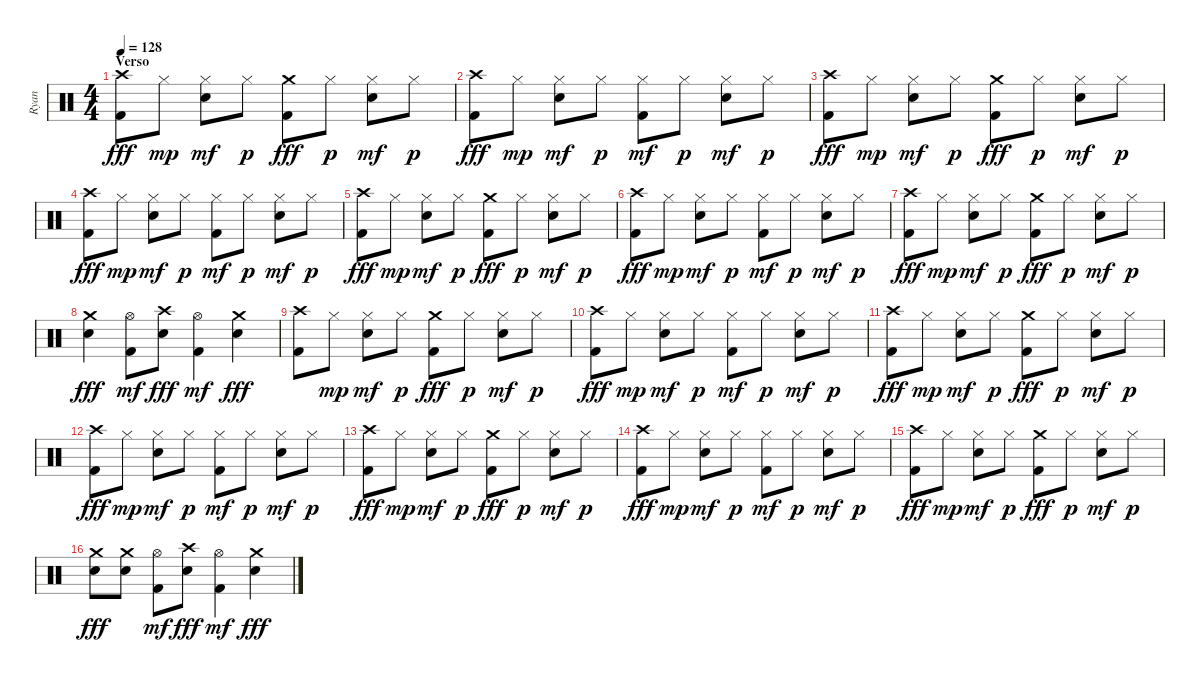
\track ("Ryan" "Ryan") {instrument percussion}
\staff {score}
\articulation defaults
\ts (4 4)
\section ("" "Verso")
\tempo 128
\clef neutral
\ks c
("Kick (hit) 2" "Crash high (hit)").8{dy fff} "Hi-Hat (closed)".8{dy mp} ("Snare (hit) 2" "Hi-Hat (closed)").8{dy mf} "Hi-Hat (closed)".8{dy p} ("Kick (hit) 2" "Crash medium (hit)").8{dy fff} "Hi-Hat (closed)".8{dy p} ("Snare (hit) 2" "Hi-Hat (closed)").8{dy mf} "Hi-Hat (closed)".8{dy p} |
("Kick (hit) 2" "Crash high (hit)").8{dy fff} "Hi-Hat (closed)".8{dy mp} ("Snare (hit) 2" "Hi-Hat (closed)").8{dy mf} "Hi-Hat (closed)".8{dy p} ("Kick (hit) 2" "Hi-Hat (closed)").8{dy mf} "Hi-Hat (closed)".8{dy p} ("Snare (hit) 2" "Hi-Hat (closed)").8{dy mf} "Hi-Hat (closed)".8{dy p} |
("Kick (hit) 2" "Crash high (hit)").8{dy fff} "Hi-Hat (closed)".8{dy mp} ("Snare (hit) 2" "Hi-Hat (closed)").8{dy mf} "Hi-Hat (closed)".8{dy p} ("Kick (hit) 2" "Crash medium (hit)").8{dy fff} "Hi-Hat (closed)".8{dy p} ("Snare (hit) 2" "Hi-Hat (closed)").8{dy mf} "Hi-Hat (closed)".8{dy p} |
("Kick (hit) 2" "Crash high (hit)").8{dy fff} "Hi-Hat (closed)".8{dy mp} ("Snare (hit) 2" "Hi-Hat (closed)").8{dy mf} "Hi-Hat (closed)".8{dy p} ("Kick (hit) 2" "Hi-Hat (closed)").8{dy mf} "Hi-Hat (closed)".8{dy p} ("Snare (hit) 2" "Hi-Hat (closed)").8{dy mf} "Hi-Hat (closed)".8{dy p} |
("Kick (hit) 2" "Crash high (hit)").8{dy fff} "Hi-Hat (closed)".8{dy mp} ("Snare (hit) 2" "Hi-Hat (closed)").8{dy mf} "Hi-Hat (closed)".8{dy p} ("Kick (hit) 2" "Crash medium (hit)").8{dy fff} "Hi-Hat (closed)".8{dy p} ("Snare (hit) 2" "Hi-Hat (closed)").8{dy mf} "Hi-Hat (closed)".8{dy p} |
("Kick (hit) 2" "Crash high (hit)").8{dy fff} "Hi-Hat (closed)".8{dy mp} ("Snare (hit) 2" "Hi-Hat (closed)").8{dy mf} "Hi-Hat (closed)".8{dy p} ("Kick (hit) 2" "Hi-Hat (closed)").8{dy mf} "Hi-Hat (closed)".8{dy p} ("Snare (hit) 2" "Hi-Hat (closed)").8{dy mf} "Hi-Hat (closed)".8{dy p} |
("Kick (hit) 2" "Crash high (hit)").8{dy fff} "Hi-Hat (closed)".8{dy mp} ("Snare (hit) 2" "Hi-Hat (closed)").8{dy mf} "Hi-Hat (closed)".8{dy p} ("Kick (hit) 2" "Crash medium (hit)").8{dy fff} "Hi-Hat (closed)".8{dy p} ("Snare (hit) 2" "Hi-Hat (closed)").8{dy mf} "Hi-Hat (closed)".8{dy p} |
("Crash medium (hit)" "Snare (hit) 2").4{dy fff} ("Kick (hit) 2" "Hi-Hat (open)").8{dy mf} ("Snare (hit) 2" "Crash high (hit)").8{dy fff} ("Kick (hit) 2" "Hi-Hat (open)").4{dy mf} ("Crash medium (hit)" "Snare (hit) 2").4{dy fff} |
("Kick (hit) 2" "Crash high (hit)").8 "Hi-Hat (closed)".8{dy mp} ("Snare (hit) 2" "Hi-Hat (closed)").8{dy mf} "Hi-Hat (closed)".8{dy p} ("Kick (hit) 2" "Crash medium (hit)").8{dy fff} "Hi-Hat (closed)".8{dy p} ("Snare (hit) 2" "Hi-Hat (closed)").8{dy mf} "Hi-Hat (closed)".8{dy p} |
("Kick (hit) 2" "Crash high (hit)").8{dy fff} "Hi-Hat (closed)".8{dy mp} ("Snare (hit) 2" "Hi-Hat (closed)").8{dy mf} "Hi-Hat (closed)".8{dy p} ("Kick (hit) 2" "Hi-Hat (closed)").8{dy mf} "Hi-Hat (closed)".8{dy p} ("Snare (hit) 2" "Hi-Hat (closed)").8{dy mf} "Hi-Hat (closed)".8{dy p} |
("Kick (hit) 2" "Crash high (hit)").8{dy fff} "Hi-Hat (closed)".8{dy mp} ("Snare (hit) 2" "Hi-Hat (closed)").8{dy mf} "Hi-Hat (closed)".8{dy p} ("Kick (hit) 2" "Crash medium (hit)").8{dy fff} "Hi-Hat (closed)".8{dy p} ("Snare (hit) 2" "Hi-Hat (closed)").8{dy mf} "Hi-Hat (closed)".8{dy p} |
("Kick (hit) 2" "Crash high (hit)").8{dy fff} "Hi-Hat (closed)".8{dy mp} ("Snare (hit) 2" "Hi-Hat (closed)").8{dy mf} "Hi-Hat (closed)".8{dy p} ("Kick (hit) 2" "Hi-Hat (closed)").8{dy mf} "Hi-Hat (closed)".8{dy p} ("Snare (hit) 2" "Hi-Hat (closed)").8{dy mf} "Hi-Hat (closed)".8{dy p} |
("Kick (hit) 2" "Crash high (hit)").8{dy fff} "Hi-Hat (closed)".8{dy mp} ("Snare (hit) 2" "Hi-Hat (closed)").8{dy mf} "Hi-Hat (closed)".8{dy p} ("Kick (hit) 2" "Crash medium (hit)").8{dy fff} "Hi-Hat (closed)".8{dy p} ("Snare (hit) 2" "Hi-Hat (closed)").8{dy mf} "Hi-Hat (closed)".8{dy p} |
("Kick (hit) 2" "Crash high (hit)").8{dy fff} "Hi-Hat (closed)".8{dy mp} ("Snare (hit) 2" "Hi-Hat (closed)").8{dy mf} "Hi-Hat (closed)".8{dy p} ("Kick (hit) 2" "Hi-Hat (closed)").8{dy mf} "Hi-Hat (closed)".8{dy p} ("Snare (hit) 2" "Hi-Hat (closed)").8{dy mf} "Hi-Hat (closed)".8{dy p} |
("Kick (hit) 2" "Crash high (hit)").8{dy fff} "Hi-Hat (closed)".8{dy mp} ("Snare (hit) 2" "Hi-Hat (closed)").8{dy mf} "Hi-Hat (closed)".8{dy p} ("Kick (hit) 2" "Crash medium (hit)").8{dy fff} "Hi-Hat (closed)".8{dy p} ("Snare (hit) 2" "Hi-Hat (closed)").8{dy mf} "Hi-Hat (closed)".8{dy p} |
("Crash medium (hit)" "Snare (hit) 2").8{dy fff} ("Crash medium (hit)" "Snare (hit) 2").8 ("Kick (hit) 2" "Hi-Hat (open)").8{dy mf} ("Snare (hit) 2" "Crash high (hit)").8{dy fff} ("Kick (hit) 2" "Hi-Hat (open)").4{dy mf} ("Crash medium (hit)" "Snare (hit) 2").4{dy fff}
